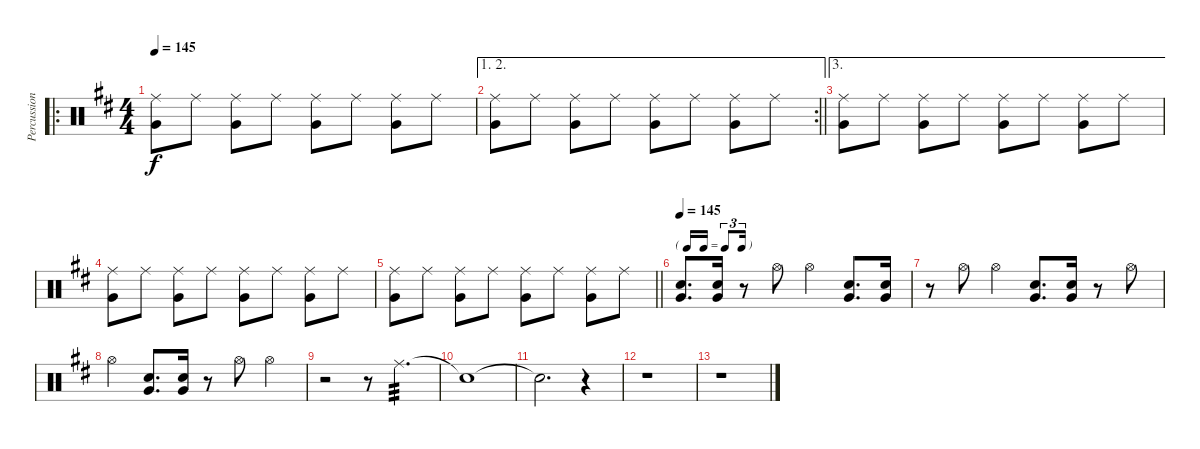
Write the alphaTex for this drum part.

\track ("Percussion" "Percussion") {instrument percussion}
\staff {score}
\articulation defaults
\ro
\ts (4 4)
\tempo 145
\clef neutral
\ks d
("Very Low Tom (hit)" "Ride (middle)").8{dy f} "Ride (middle)".8 ("Very Low Tom (hit)" "Ride (middle)").8 "Ride (middle)".8 ("Very Low Tom (hit)" "Ride (middle)").8 "Ride (middle)".8 ("Very Low Tom (hit)" "Ride (middle)").8 "Ride (middle)".8 |
\ae (1 2)
\rc 2
\barLineRight lightlight
("Very Low Tom (hit)" "Ride (middle)").8 "Ride (middle)".8 ("Very Low Tom (hit)" "Ride (middle)").8 "Ride (middle)".8 ("Very Low Tom (hit)" "Ride (middle)").8 "Ride (middle)".8 ("Very Low Tom (hit)" "Ride (middle)").8 "Ride (middle)".8 |
\ae 3
("Very Low Tom (hit)" "Ride (middle)").8 "Ride (middle)".8 ("Very Low Tom (hit)" "Ride (middle)").8 "Ride (middle)".8 ("Very Low Tom (hit)" "Ride (middle)").8 "Ride (middle)".8 ("Very Low Tom (hit)" "Ride (middle)").8 "Ride (middle)".8 |
("Very Low Tom (hit)" "Ride (middle)").8 "Ride (middle)".8 ("Very Low Tom (hit)" "Ride (middle)").8 "Ride (middle)".8 ("Very Low Tom (hit)" "Ride (middle)").8 "Ride (middle)".8 ("Very Low Tom (hit)" "Ride (middle)").8 "Ride (middle)".8 |
\barLineRight lightlight
("Very Low Tom (hit)" "Ride (middle)").8 "Ride (middle)".8 ("Very Low Tom (hit)" "Ride (middle)").8 "Ride (middle)".8 ("Very Low Tom (hit)" "Ride (middle)").8 "Ride (middle)".8 ("Very Low Tom (hit)" "Ride (middle)").8 "Ride (middle)".8 |
\tf triplet16th
\tempo 145
("Snare (hit) 2" "Very Low Tom (hit)").8{d} ("Snare (hit) 2" "Very Low Tom (hit)").16 r.8 "Hi-Hat (open)".8 "Hi-Hat (open)".4 ("Snare (hit) 2" "Very Low Tom (hit)").8{d} ("Snare (hit) 2" "Very Low Tom (hit)").16 |
r.8 "Hi-Hat (open)".8 "Hi-Hat (open)".4 ("Snare (hit) 2" "Very Low Tom (hit)").8{d} ("Snare (hit) 2" "Very Low Tom (hit)").16 r.8 "Hi-Hat (open)".8 |
"Hi-Hat (open)".4 ("Snare (hit) 2" "Very Low Tom (hit)").8{d} ("Snare (hit) 2" "Very Low Tom (hit)").16 r.8 "Hi-Hat (open)".8 "Hi-Hat (open)".4 |
r.2 r.8{volume 0} "Ride (middle)".4{d tp 3 volume 16} |
"Snare (hit)"{t}.1 |
"Snare (hit)"{t}.2{d} r.4 |
r.1 |
r.1
